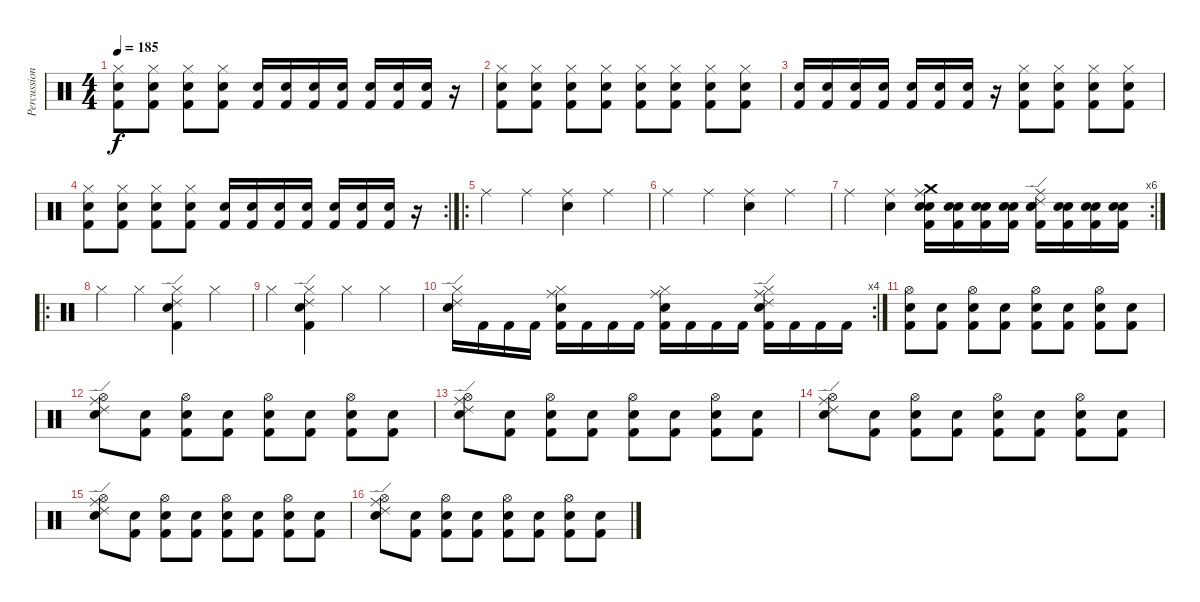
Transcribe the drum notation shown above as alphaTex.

\track ("Percussions" "Percussion") {instrument percussion}
\staff {score}
\articulation defaults
\ts (4 4)
\tempo 185
\clef neutral
\ks c
("Hi-Hat (closed)" "Snare (hit) 2" "Kick (hit) 2").8{dy f} ("Hi-Hat (closed)" "Snare (hit) 2" "Kick (hit) 2").8 ("Hi-Hat (closed)" "Snare (hit) 2" "Kick (hit) 2").8 ("Hi-Hat (closed)" "Snare (hit) 2" "Kick (hit) 2").8 ("Snare (hit) 2" "Kick (hit) 2").16 ("Snare (hit) 2" "Kick (hit) 2").16 ("Snare (hit) 2" "Kick (hit) 2").16 ("Snare (hit) 2" "Kick (hit) 2").16 ("Snare (hit) 2" "Kick (hit) 2").16 ("Snare (hit) 2" "Kick (hit) 2").16 ("Snare (hit) 2" "Kick (hit) 2").16 r.16 |
("Hi-Hat (closed)" "Snare (hit) 2" "Kick (hit) 2").8 ("Hi-Hat (closed)" "Snare (hit) 2" "Kick (hit) 2").8 ("Hi-Hat (closed)" "Snare (hit) 2" "Kick (hit) 2").8 ("Hi-Hat (closed)" "Snare (hit) 2" "Kick (hit) 2").8 ("Hi-Hat (closed)" "Snare (hit) 2" "Kick (hit) 2").8 ("Hi-Hat (closed)" "Snare (hit) 2" "Kick (hit) 2").8 ("Hi-Hat (closed)" "Snare (hit) 2" "Kick (hit) 2").8 ("Hi-Hat (closed)" "Snare (hit) 2" "Kick (hit) 2").8 |
("Snare (hit) 2" "Kick (hit) 2").16 ("Snare (hit) 2" "Kick (hit) 2").16 ("Snare (hit) 2" "Kick (hit) 2").16 ("Snare (hit) 2" "Kick (hit) 2").16 ("Snare (hit) 2" "Kick (hit) 2").16 ("Snare (hit) 2" "Kick (hit) 2").16 ("Snare (hit) 2" "Kick (hit) 2").16 r.16 ("Hi-Hat (closed)" "Snare (hit) 2" "Kick (hit) 2").8 ("Hi-Hat (closed)" "Snare (hit) 2" "Kick (hit) 2").8 ("Hi-Hat (closed)" "Snare (hit) 2" "Kick (hit) 2").8 ("Hi-Hat (closed)" "Snare (hit) 2" "Kick (hit) 2").8 |
\rc 2
("Hi-Hat (closed)" "Snare (hit) 2" "Kick (hit) 2").8 ("Hi-Hat (closed)" "Snare (hit) 2" "Kick (hit) 2").8 ("Hi-Hat (closed)" "Snare (hit) 2" "Kick (hit) 2").8 ("Hi-Hat (closed)" "Snare (hit) 2" "Kick (hit) 2").8 ("Snare (hit) 2" "Kick (hit) 2").16 ("Snare (hit) 2" "Kick (hit) 2").16 ("Snare (hit) 2" "Kick (hit) 2").16 ("Snare (hit) 2" "Kick (hit) 2").16 ("Snare (hit) 2" "Kick (hit) 2").16 ("Snare (hit) 2" "Kick (hit) 2").16 ("Snare (hit) 2" "Kick (hit) 2").16 r.16 |
\ro "Ride (middle)".4 "Ride (middle)".4
("Ride (middle)" "Electric Snare (hit)").4 "Ride (middle)".4 |
"Ride (middle)".4 "Ride (middle)".4 ("Ride (middle)" "Electric Snare (hit)").4 "Ride (middle)".4 |
\rc 6 "Ride (middle)".4
("Ride (middle)" "Electric Snare (hit)").4 ("Ride (middle)" "Crash medium (hit)" "Kick (hit) 2" "Snare (hit) 2" "Electric Snare (hit)").16 ("Kick (hit) 2" "Snare (hit) 2" "Electric Snare (hit)").16 ("Kick (hit) 2" "Snare (hit) 2" "Electric Snare (hit)").16 ("Kick (hit) 2" "Snare (hit) 2" "Electric Snare (hit)").16 ("Ride (middle)" "Ride (edge) 2" "Kick (hit) 2" "Snare (hit) 2" "Electric Snare (hit)").16 ("Kick (hit) 2" "Snare (hit) 2" "Electric Snare (hit)").16 ("Kick (hit) 2" "Snare (hit) 2" "Electric Snare (hit)").16 ("Kick (hit) 2" "Snare (hit) 2" "Electric Snare (hit)").16 |
\ro "Hi-Hat (closed)".4 "Hi-Hat (closed)".4
("Hi-Hat (closed)" "Ride (edge) 2" "Electric Snare (hit)" "Kick (hit) 2").4 "Hi-Hat (closed)".4 |
"Hi-Hat (closed)".4 ("Hi-Hat (closed)" "Ride (edge) 2" "Electric Snare (hit)" "Kick (hit) 2").4 "Hi-Hat (closed)".4 "Hi-Hat (closed)".4 |
\rc 4
("Hi-Hat (closed)" "Ride (edge) 2" "Electric Snare (hit)").16 "Kick (hit) 2".16 "Kick (hit) 2".16 "Kick (hit) 2".16 ("Hi-Hat (closed)" "Ride (middle)" "Snare (hit) 2" "Kick (hit) 2").16 "Kick (hit) 2".16 "Kick (hit) 2".16 "Kick (hit) 2".16 ("Hi-Hat (closed)" "Ride (middle)" "Snare (hit) 2" "Kick (hit) 2").16 "Kick (hit) 2".16 "Kick (hit) 2".16 "Kick (hit) 2".16 ("Hi-Hat (closed)" "Ride (edge) 2" "Ride (middle)" "Electric Snare (hit)" "Kick (hit) 2").16 "Kick (hit) 2".16 "Kick (hit) 2".16 "Kick (hit) 2".16 |
("Hi-Hat (open)" "Snare (hit) 2" "Kick (hit) 2").8 ("Snare (hit) 2" "Kick (hit) 2").8 ("Hi-Hat (open)" "Snare (hit) 2" "Kick (hit) 2").8 ("Snare (hit) 2" "Kick (hit) 2").8 ("Hi-Hat (open)" "Snare (hit) 2" "Kick (hit) 2").8 ("Snare (hit) 2" "Kick (hit) 2").8 ("Hi-Hat (open)" "Snare (hit) 2" "Kick (hit) 2").8 ("Snare (hit) 2" "Kick (hit) 2").8 |
("Hi-Hat (open)" "Ride (middle)" "Ride (edge) 2" "Snare (hit) 2").8 ("Snare (hit) 2" "Kick (hit) 2").8 ("Hi-Hat (open)" "Snare (hit) 2" "Kick (hit) 2").8 ("Snare (hit) 2" "Kick (hit) 2").8 ("Hi-Hat (open)" "Snare (hit) 2" "Kick (hit) 2").8 ("Snare (hit) 2" "Kick (hit) 2").8 ("Hi-Hat (open)" "Snare (hit) 2" "Kick (hit) 2").8 ("Snare (hit) 2" "Kick (hit) 2").8 |
("Hi-Hat (open)" "Ride (middle)" "Ride (edge) 2" "Snare (hit) 2").8 ("Snare (hit) 2" "Kick (hit) 2").8 ("Hi-Hat (open)" "Snare (hit) 2" "Kick (hit) 2").8 ("Snare (hit) 2" "Kick (hit) 2").8 ("Hi-Hat (open)" "Snare (hit) 2" "Kick (hit) 2").8 ("Snare (hit) 2" "Kick (hit) 2").8 ("Hi-Hat (open)" "Snare (hit) 2" "Kick (hit) 2").8 ("Snare (hit) 2" "Kick (hit) 2").8 |
("Hi-Hat (open)" "Ride (middle)" "Ride (edge) 2" "Snare (hit) 2").8 ("Snare (hit) 2" "Kick (hit) 2").8 ("Hi-Hat (open)" "Snare (hit) 2" "Kick (hit) 2").8 ("Snare (hit) 2" "Kick (hit) 2").8 ("Hi-Hat (open)" "Snare (hit) 2" "Kick (hit) 2").8 ("Snare (hit) 2" "Kick (hit) 2").8 ("Hi-Hat (open)" "Snare (hit) 2" "Kick (hit) 2").8 ("Snare (hit) 2" "Kick (hit) 2").8 |
("Hi-Hat (open)" "Ride (middle)" "Ride (edge) 2" "Snare (hit) 2").8 ("Snare (hit) 2" "Kick (hit) 2").8 ("Hi-Hat (open)" "Snare (hit) 2" "Kick (hit) 2").8 ("Snare (hit) 2" "Kick (hit) 2").8 ("Hi-Hat (open)" "Snare (hit) 2" "Kick (hit) 2").8 ("Snare (hit) 2" "Kick (hit) 2").8 ("Hi-Hat (open)" "Snare (hit) 2" "Kick (hit) 2").8 ("Snare (hit) 2" "Kick (hit) 2").8 |
("Hi-Hat (open)" "Ride (middle)" "Ride (edge) 2" "Snare (hit) 2").8 ("Snare (hit) 2" "Kick (hit) 2").8 ("Hi-Hat (open)" "Snare (hit) 2" "Kick (hit) 2").8 ("Snare (hit) 2" "Kick (hit) 2").8 ("Hi-Hat (open)" "Snare (hit) 2" "Kick (hit) 2").8 ("Snare (hit) 2" "Kick (hit) 2").8 ("Hi-Hat (open)" "Snare (hit) 2" "Kick (hit) 2").8 ("Snare (hit) 2" "Kick (hit) 2").8
